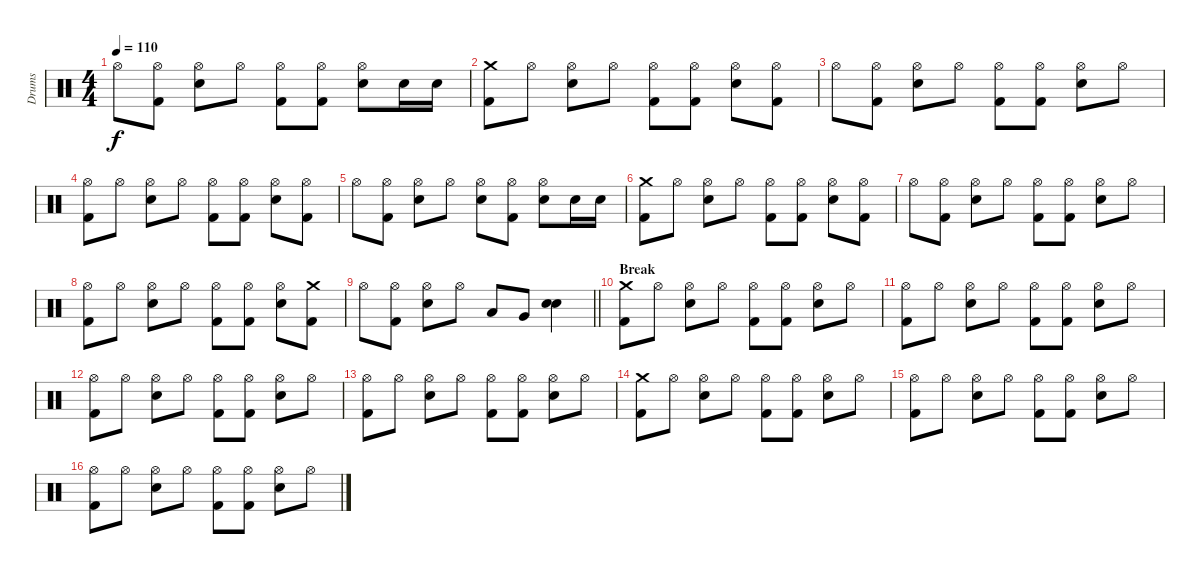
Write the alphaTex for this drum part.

\track ("Drums" "Drums") {instrument percussion}
\staff {score}
\articulation defaults
\ts (4 4)
\tempo 110
\clef neutral
\ks c "Hi-Hat (open)".8{dy f}
("Hi-Hat (open)" "Kick (hit) 2").8 ("Hi-Hat (open)" "Electric Snare (hit)").8 "Hi-Hat (open)".8 ("Hi-Hat (open)" "Kick (hit) 2").8 ("Hi-Hat (open)" "Kick (hit) 2").8 ("Hi-Hat (open)" "Electric Snare (hit)").8 "Electric Snare (hit)".16 "Electric Snare (hit)".16 |
("Crash medium (hit)" "Kick (hit) 2").8 "Hi-Hat (open)".8 ("Hi-Hat (open)" "Electric Snare (hit)").8 "Hi-Hat (open)".8 ("Hi-Hat (open)" "Kick (hit) 2").8 ("Hi-Hat (open)" "Kick (hit) 2").8 ("Hi-Hat (open)" "Electric Snare (hit)").8 ("Hi-Hat (open)" "Kick (hit) 2").8 |
"Hi-Hat (open)".8 ("Hi-Hat (open)" "Kick (hit) 2").8 ("Hi-Hat (open)" "Electric Snare (hit)").8 "Hi-Hat (open)".8 ("Hi-Hat (open)" "Kick (hit) 2").8 ("Hi-Hat (open)" "Kick (hit) 2").8 ("Hi-Hat (open)" "Electric Snare (hit)").8 "Hi-Hat (open)".8 |
("Hi-Hat (open)" "Kick (hit) 2").8 "Hi-Hat (open)".8 ("Hi-Hat (open)" "Electric Snare (hit)").8 "Hi-Hat (open)".8 ("Hi-Hat (open)" "Kick (hit) 2").8 ("Hi-Hat (open)" "Kick (hit) 2").8 ("Hi-Hat (open)" "Electric Snare (hit)").8 ("Hi-Hat (open)" "Kick (hit) 2").8 |
"Hi-Hat (open)".8 ("Hi-Hat (open)" "Kick (hit) 2").8 ("Hi-Hat (open)" "Electric Snare (hit)").8 "Hi-Hat (open)".8 ("Hi-Hat (open)" "Electric Snare (hit)").8 ("Hi-Hat (open)" "Kick (hit) 2").8 ("Hi-Hat (open)" "Electric Snare (hit)").8 "Electric Snare (hit)".16 "Electric Snare (hit)".16 |
("Crash medium (hit)" "Kick (hit) 2").8 "Hi-Hat (open)".8 ("Hi-Hat (open)" "Electric Snare (hit)").8 "Hi-Hat (open)".8 ("Hi-Hat (open)" "Kick (hit) 2").8 ("Hi-Hat (open)" "Kick (hit) 2").8 ("Hi-Hat (open)" "Electric Snare (hit)").8 ("Hi-Hat (open)" "Kick (hit) 2").8 |
"Hi-Hat (open)".8 ("Hi-Hat (open)" "Kick (hit) 2").8 ("Hi-Hat (open)" "Electric Snare (hit)").8 "Hi-Hat (open)".8 ("Hi-Hat (open)" "Kick (hit) 2").8 ("Hi-Hat (open)" "Kick (hit) 2").8 ("Hi-Hat (open)" "Electric Snare (hit)").8 "Hi-Hat (open)".8 |
("Hi-Hat (open)" "Kick (hit) 2").8 "Hi-Hat (open)".8 ("Hi-Hat (open)" "Electric Snare (hit)").8 "Hi-Hat (open)".8 ("Hi-Hat (open)" "Kick (hit) 2").8 ("Hi-Hat (open)" "Kick (hit) 2").8 ("Hi-Hat (open)" "Electric Snare (hit)").8 ("Crash medium (hit)" "Kick (hit) 2").8 |
\barLineRight lightlight "Hi-Hat (open)".8
("Hi-Hat (open)" "Kick (hit) 2").8 ("Hi-Hat (open)" "Electric Snare (hit)").8 "Hi-Hat (open)".8 "Low Tom (hit)".8 "Very Low Tom (hit)".8 ("Electric Snare (hit)" "Electric Snare (hit)").4 |
\section ("" "Break")
("Crash medium (hit)" "Kick (hit) 2").8 "Hi-Hat (open)".8 ("Hi-Hat (open)" "Electric Snare (hit)").8 "Hi-Hat (open)".8 ("Hi-Hat (open)" "Kick (hit) 2").8 ("Hi-Hat (open)" "Kick (hit) 2").8 ("Hi-Hat (open)" "Electric Snare (hit)").8 "Hi-Hat (open)".8 |
("Hi-Hat (open)" "Kick (hit) 2").8 "Hi-Hat (open)".8 ("Hi-Hat (open)" "Electric Snare (hit)").8 "Hi-Hat (open)".8 ("Hi-Hat (open)" "Kick (hit) 2").8 ("Hi-Hat (open)" "Kick (hit) 2").8 ("Hi-Hat (open)" "Electric Snare (hit)").8 "Hi-Hat (open)".8 |
("Hi-Hat (open)" "Kick (hit) 2").8 "Hi-Hat (open)".8 ("Hi-Hat (open)" "Electric Snare (hit)").8 "Hi-Hat (open)".8 ("Hi-Hat (open)" "Kick (hit) 2").8 ("Hi-Hat (open)" "Kick (hit) 2").8 ("Hi-Hat (open)" "Electric Snare (hit)").8 "Hi-Hat (open)".8 |
("Hi-Hat (open)" "Kick (hit) 2").8 "Hi-Hat (open)".8 ("Hi-Hat (open)" "Electric Snare (hit)").8 "Hi-Hat (open)".8 ("Hi-Hat (open)" "Kick (hit) 2").8 ("Hi-Hat (open)" "Kick (hit) 2").8 ("Hi-Hat (open)" "Electric Snare (hit)").8 "Hi-Hat (open)".8 |
("Crash medium (hit)" "Kick (hit) 2").8 "Hi-Hat (open)".8 ("Hi-Hat (open)" "Electric Snare (hit)").8 "Hi-Hat (open)".8 ("Hi-Hat (open)" "Kick (hit) 2").8 ("Hi-Hat (open)" "Kick (hit) 2").8 ("Hi-Hat (open)" "Electric Snare (hit)").8 "Hi-Hat (open)".8 |
("Hi-Hat (open)" "Kick (hit) 2").8 "Hi-Hat (open)".8 ("Hi-Hat (open)" "Electric Snare (hit)").8 "Hi-Hat (open)".8 ("Hi-Hat (open)" "Kick (hit) 2").8 ("Hi-Hat (open)" "Kick (hit) 2").8 ("Hi-Hat (open)" "Electric Snare (hit)").8 "Hi-Hat (open)".8 |
("Hi-Hat (open)" "Kick (hit) 2").8 "Hi-Hat (open)".8 ("Hi-Hat (open)" "Electric Snare (hit)").8 "Hi-Hat (open)".8 ("Hi-Hat (open)" "Kick (hit) 2").8 ("Hi-Hat (open)" "Kick (hit) 2").8 ("Hi-Hat (open)" "Electric Snare (hit)").8 "Hi-Hat (open)".8
